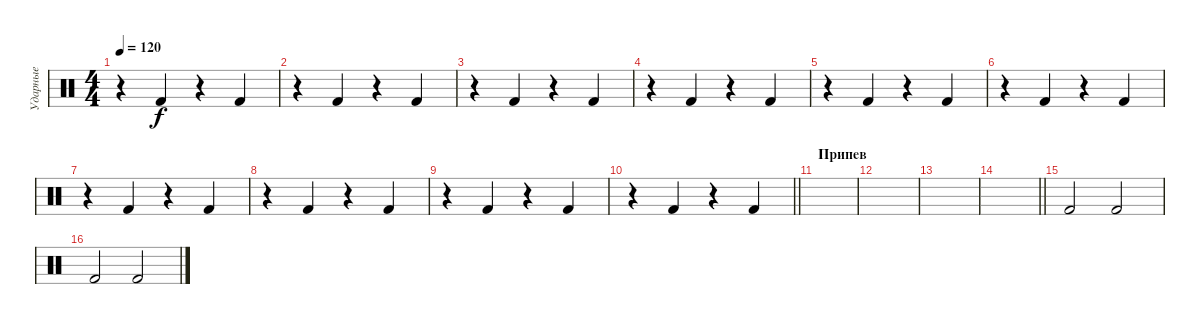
\track ("Ударные" "Ударные") {instrument percussion}
\staff {score}
\articulation defaults
\ts (4 4)
\tempo 120
\clef neutral
\ks c
r.4{dy f} "Kick (hit) 2".4 r.4 "Kick (hit) 2".4 |
r.4 "Kick (hit) 2".4 r.4 "Kick (hit) 2".4 |
r.4 "Kick (hit) 2".4 r.4 "Kick (hit) 2".4 |
r.4 "Kick (hit) 2".4 r.4 "Kick (hit) 2".4 |
r.4 "Kick (hit) 2".4 r.4 "Kick (hit) 2".4 |
r.4 "Kick (hit) 2".4 r.4 "Kick (hit) 2".4 |
r.4 "Kick (hit) 2".4 r.4 "Kick (hit) 2".4 |
r.4 "Kick (hit) 2".4 r.4 "Kick (hit) 2".4 |
r.4 "Kick (hit) 2".4 r.4 "Kick (hit) 2".4 |
\barLineRight lightlight
r.4 "Kick (hit) 2".4 r.4 "Kick (hit) 2".4 |
\section ("" "Припев")
|
|
|
\barLineRight lightlight
|
"Kick (hit) 2".2 "Kick (hit) 2".2 |
"Kick (hit) 2".2 "Kick (hit) 2".2
